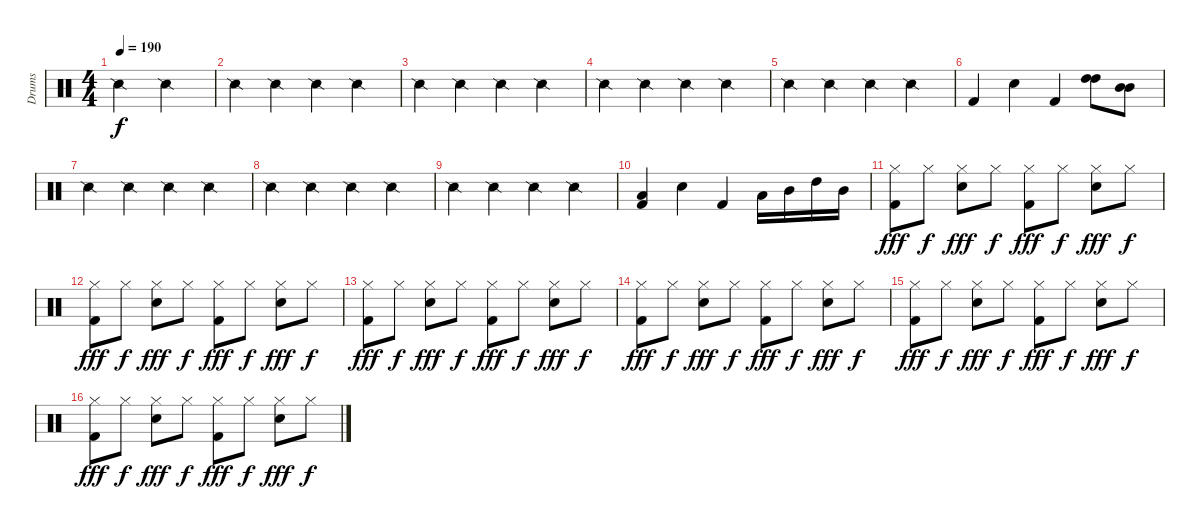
\track ("Drums" "Drums") {instrument percussion}
\staff {score}
\articulation defaults
\ts (4 4)
\tempo 190
\clef neutral
\ks c "Snare (side stick) 2".2{dy f} "Snare (side stick) 2".2
|
"Snare (side stick) 2".4 "Snare (side stick) 2".4 "Snare (side stick) 2".4 "Snare (side stick) 2".4 |
"Snare (side stick) 2".4 "Snare (side stick) 2".4 "Snare (side stick) 2".4 "Snare (side stick) 2".4 |
"Snare (side stick) 2".4 "Snare (side stick) 2".4 "Snare (side stick) 2".4 "Snare (side stick) 2".4 |
"Snare (side stick) 2".4 "Snare (side stick) 2".4 "Snare (side stick) 2".4 "Snare (side stick) 2".4 |
"Kick (hit) 2".4 "Snare (hit) 2".4 "Kick (hit) 2".4 ("High Tom (hit)" "High Tom (hit)").8 ("Mid Tom (hit)" "Mid Tom (hit)").8 |
"Snare (side stick) 2".4 "Snare (side stick) 2".4 "Snare (side stick) 2".4 "Snare (side stick) 2".4 |
"Snare (side stick) 2".4 "Snare (side stick) 2".4 "Snare (side stick) 2".4 "Snare (side stick) 2".4 |
"Snare (side stick) 2".4 "Snare (side stick) 2".4 "Snare (side stick) 2".4 "Snare (side stick) 2".4 |
("Kick (hit) 2" "Low Tom (hit)").4 "Snare (hit) 2".4 "Kick (hit) 2".4 "Low Tom (hit)".16 "Mid Tom (hit)".16 "High Tom (hit)".16 "Mid Tom (hit)".16 |
("Kick (hit) 2" "Hi-Hat (closed)").8{dy fff} "Hi-Hat (closed)".8{dy f} ("Snare (hit) 2" "Hi-Hat (closed)").8{dy fff} "Hi-Hat (closed)".8{dy f} ("Kick (hit) 2" "Hi-Hat (closed)").8{dy fff} "Hi-Hat (closed)".8{dy f} ("Snare (hit) 2" "Hi-Hat (closed)").8{dy fff} "Hi-Hat (closed)".8{dy f} |
("Kick (hit) 2" "Hi-Hat (closed)").8{dy fff} "Hi-Hat (closed)".8{dy f} ("Snare (hit) 2" "Hi-Hat (closed)").8{dy fff} "Hi-Hat (closed)".8{dy f} ("Kick (hit) 2" "Hi-Hat (closed)").8{dy fff} "Hi-Hat (closed)".8{dy f} ("Snare (hit) 2" "Hi-Hat (closed)").8{dy fff} "Hi-Hat (closed)".8{dy f} |
("Kick (hit) 2" "Hi-Hat (closed)").8{dy fff} "Hi-Hat (closed)".8{dy f} ("Snare (hit) 2" "Hi-Hat (closed)").8{dy fff} "Hi-Hat (closed)".8{dy f} ("Kick (hit) 2" "Hi-Hat (closed)").8{dy fff} "Hi-Hat (closed)".8{dy f} ("Snare (hit) 2" "Hi-Hat (closed)").8{dy fff} "Hi-Hat (closed)".8{dy f} |
("Kick (hit) 2" "Hi-Hat (closed)").8{dy fff} "Hi-Hat (closed)".8{dy f} ("Snare (hit) 2" "Hi-Hat (closed)").8{dy fff} "Hi-Hat (closed)".8{dy f} ("Kick (hit) 2" "Hi-Hat (closed)").8{dy fff} "Hi-Hat (closed)".8{dy f} ("Snare (hit) 2" "Hi-Hat (closed)").8{dy fff} "Hi-Hat (closed)".8{dy f} |
("Kick (hit) 2" "Hi-Hat (closed)").8{dy fff} "Hi-Hat (closed)".8{dy f} ("Snare (hit) 2" "Hi-Hat (closed)").8{dy fff} "Hi-Hat (closed)".8{dy f} ("Kick (hit) 2" "Hi-Hat (closed)").8{dy fff} "Hi-Hat (closed)".8{dy f} ("Snare (hit) 2" "Hi-Hat (closed)").8{dy fff} "Hi-Hat (closed)".8{dy f} |
("Kick (hit) 2" "Hi-Hat (closed)").8{dy fff} "Hi-Hat (closed)".8{dy f} ("Snare (hit) 2" "Hi-Hat (closed)").8{dy fff} "Hi-Hat (closed)".8{dy f} ("Kick (hit) 2" "Hi-Hat (closed)").8{dy fff} "Hi-Hat (closed)".8{dy f} ("Snare (hit) 2" "Hi-Hat (closed)").8{dy fff} "Hi-Hat (closed)".8{dy f}
